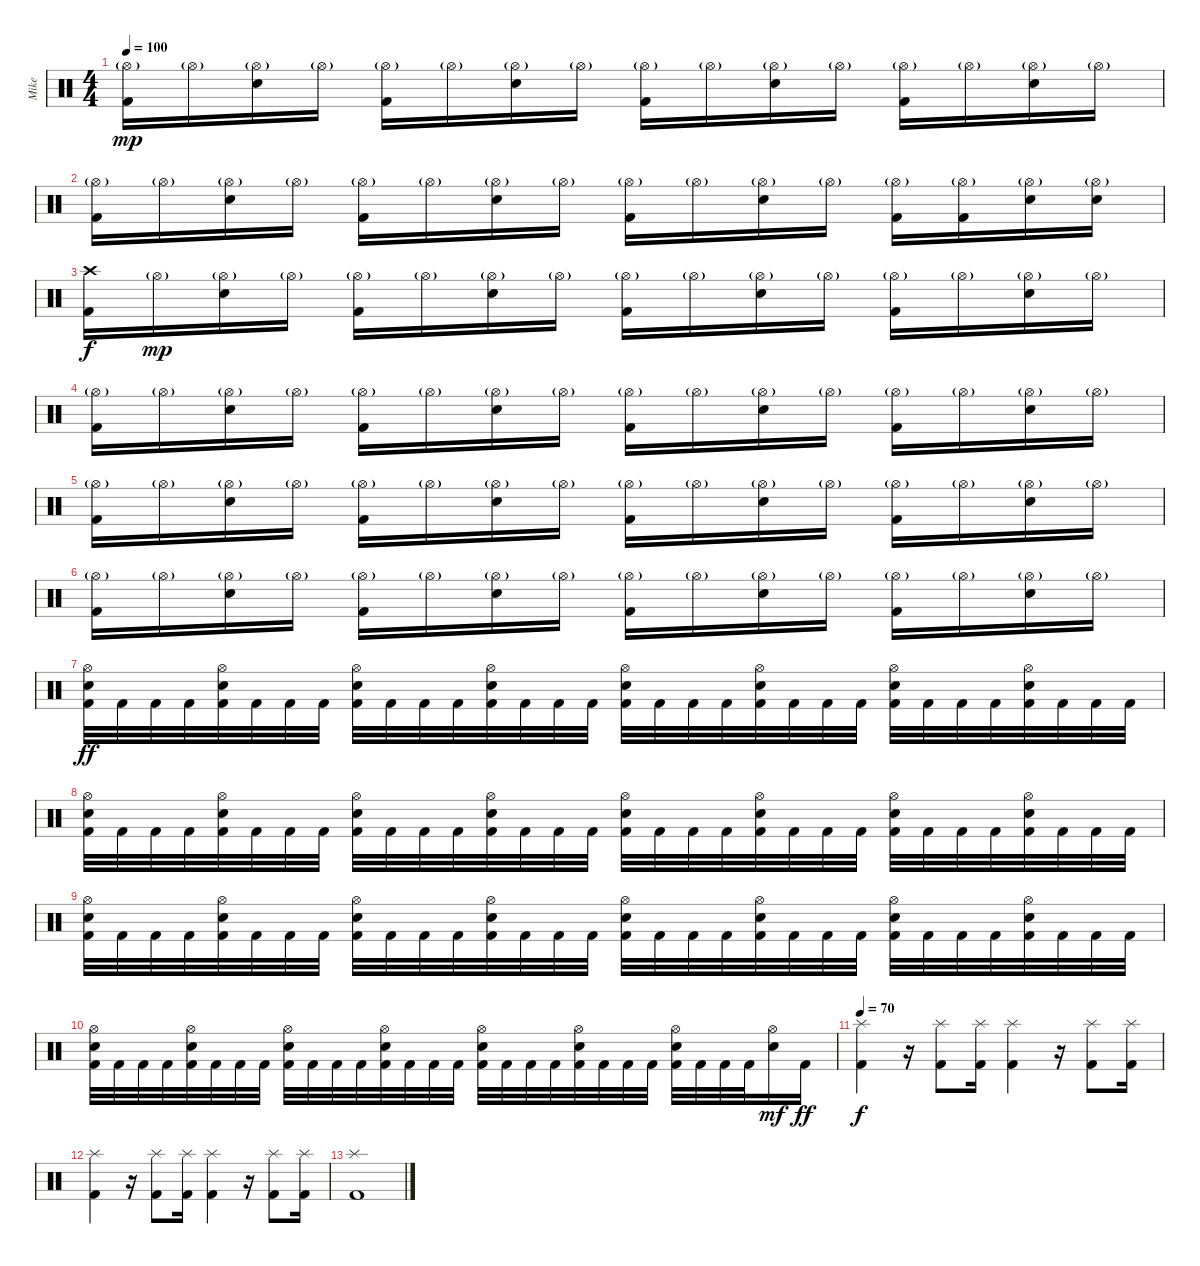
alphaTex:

\track ("Mike" "Mike") {instrument percussion}
\staff {score}
\articulation defaults
\ts (4 4)
\tempo 100
\clef neutral
\ks c
("Hi-Hat (open)"{g} "Kick (hit) 2").16{dy mp} "Hi-Hat (open)"{g}.16 ("Hi-Hat (open)"{g} "Snare (hit) 2").16 "Hi-Hat (open)"{g}.16 ("Hi-Hat (open)"{g} "Kick (hit) 2").16 "Hi-Hat (open)"{g}.16 ("Hi-Hat (open)"{g} "Snare (hit) 2").16 "Hi-Hat (open)"{g}.16 ("Hi-Hat (open)"{g} "Kick (hit) 2").16 "Hi-Hat (open)"{g}.16 ("Hi-Hat (open)"{g} "Snare (hit) 2").16 "Hi-Hat (open)"{g}.16 ("Hi-Hat (open)"{g} "Kick (hit) 2").16 "Hi-Hat (open)"{g}.16 ("Hi-Hat (open)"{g} "Snare (hit) 2").16 "Hi-Hat (open)"{g}.16 |
("Hi-Hat (open)"{g} "Kick (hit) 2").16 "Hi-Hat (open)"{g}.16 ("Hi-Hat (open)"{g} "Snare (hit) 2").16 "Hi-Hat (open)"{g}.16 ("Hi-Hat (open)"{g} "Kick (hit) 2").16 "Hi-Hat (open)"{g}.16 ("Hi-Hat (open)"{g} "Snare (hit) 2").16 "Hi-Hat (open)"{g}.16 ("Hi-Hat (open)"{g} "Kick (hit) 2").16 "Hi-Hat (open)"{g}.16 ("Hi-Hat (open)"{g} "Snare (hit) 2").16 "Hi-Hat (open)"{g}.16 ("Hi-Hat (open)"{g} "Kick (hit) 2").16 ("Hi-Hat (open)"{g} "Kick (hit) 2").16 ("Hi-Hat (open)"{g} "Snare (hit) 2").16 ("Hi-Hat (open)"{g} "Snare (hit) 2").16 |
("Crash high (hit)" "Kick (hit) 2").16{dy f} "Hi-Hat (open)"{g}.16{dy mp} ("Hi-Hat (open)"{g} "Snare (hit) 2").16 "Hi-Hat (open)"{g}.16 ("Hi-Hat (open)"{g} "Kick (hit) 2").16 "Hi-Hat (open)"{g}.16 ("Hi-Hat (open)"{g} "Snare (hit) 2").16 "Hi-Hat (open)"{g}.16 ("Hi-Hat (open)"{g} "Kick (hit) 2").16 "Hi-Hat (open)"{g}.16 ("Hi-Hat (open)"{g} "Snare (hit) 2").16 "Hi-Hat (open)"{g}.16 ("Hi-Hat (open)"{g} "Kick (hit) 2").16 "Hi-Hat (open)"{g}.16 ("Hi-Hat (open)"{g} "Snare (hit) 2").16 "Hi-Hat (open)"{g}.16 |
("Hi-Hat (open)"{g} "Kick (hit) 2").16 "Hi-Hat (open)"{g}.16 ("Hi-Hat (open)"{g} "Snare (hit) 2").16 "Hi-Hat (open)"{g}.16 ("Hi-Hat (open)"{g} "Kick (hit) 2").16 "Hi-Hat (open)"{g}.16 ("Hi-Hat (open)"{g} "Snare (hit) 2").16 "Hi-Hat (open)"{g}.16 ("Hi-Hat (open)"{g} "Kick (hit) 2").16 "Hi-Hat (open)"{g}.16 ("Hi-Hat (open)"{g} "Snare (hit) 2").16 "Hi-Hat (open)"{g}.16 ("Hi-Hat (open)"{g} "Kick (hit) 2").16 "Hi-Hat (open)"{g}.16 ("Hi-Hat (open)"{g} "Snare (hit) 2").16 "Hi-Hat (open)"{g}.16 |
("Hi-Hat (open)"{g} "Kick (hit) 2").16 "Hi-Hat (open)"{g}.16 ("Hi-Hat (open)"{g} "Snare (hit) 2").16 "Hi-Hat (open)"{g}.16 ("Hi-Hat (open)"{g} "Kick (hit) 2").16 "Hi-Hat (open)"{g}.16 ("Hi-Hat (open)"{g} "Snare (hit) 2").16 "Hi-Hat (open)"{g}.16 ("Hi-Hat (open)"{g} "Kick (hit) 2").16 "Hi-Hat (open)"{g}.16 ("Hi-Hat (open)"{g} "Snare (hit) 2").16 "Hi-Hat (open)"{g}.16 ("Hi-Hat (open)"{g} "Kick (hit) 2").16 "Hi-Hat (open)"{g}.16 ("Hi-Hat (open)"{g} "Snare (hit) 2").16 "Hi-Hat (open)"{g}.16 |
("Hi-Hat (open)"{g} "Kick (hit) 2").16 "Hi-Hat (open)"{g}.16 ("Hi-Hat (open)"{g} "Snare (hit) 2").16 "Hi-Hat (open)"{g}.16 ("Hi-Hat (open)"{g} "Kick (hit) 2").16 "Hi-Hat (open)"{g}.16 ("Hi-Hat (open)"{g} "Snare (hit) 2").16 "Hi-Hat (open)"{g}.16 ("Hi-Hat (open)"{g} "Kick (hit) 2").16 "Hi-Hat (open)"{g}.16 ("Hi-Hat (open)"{g} "Snare (hit) 2").16 "Hi-Hat (open)"{g}.16 ("Hi-Hat (open)"{g} "Kick (hit) 2").16 "Hi-Hat (open)"{g}.16 ("Hi-Hat (open)"{g} "Snare (hit) 2").16 "Hi-Hat (open)"{g}.16 |
("Hi-Hat (open)" "Snare (hit) 2" "Kick (hit) 2").32{dy ff} "Kick (hit) 2".32 "Kick (hit) 2".32 "Kick (hit) 2".32 ("Hi-Hat (open)" "Snare (hit) 2" "Kick (hit) 2").32 "Kick (hit) 2".32 "Kick (hit) 2".32 "Kick (hit) 2".32 ("Hi-Hat (open)" "Snare (hit) 2" "Kick (hit) 2").32 "Kick (hit) 2".32 "Kick (hit) 2".32 "Kick (hit) 2".32 ("Hi-Hat (open)" "Snare (hit) 2" "Kick (hit) 2").32 "Kick (hit) 2".32 "Kick (hit) 2".32 "Kick (hit) 2".32 ("Hi-Hat (open)" "Snare (hit) 2" "Kick (hit) 2").32 "Kick (hit) 2".32 "Kick (hit) 2".32 "Kick (hit) 2".32 ("Hi-Hat (open)" "Snare (hit) 2" "Kick (hit) 2").32 "Kick (hit) 2".32 "Kick (hit) 2".32 "Kick (hit) 2".32 ("Hi-Hat (open)" "Snare (hit) 2" "Kick (hit) 2").32 "Kick (hit) 2".32 "Kick (hit) 2".32 "Kick (hit) 2".32 ("Hi-Hat (open)" "Snare (hit) 2" "Kick (hit) 2").32 "Kick (hit) 2".32 "Kick (hit) 2".32 "Kick (hit) 2".32 |
("Hi-Hat (open)" "Snare (hit) 2" "Kick (hit) 2").32 "Kick (hit) 2".32 "Kick (hit) 2".32 "Kick (hit) 2".32 ("Hi-Hat (open)" "Snare (hit) 2" "Kick (hit) 2").32 "Kick (hit) 2".32 "Kick (hit) 2".32 "Kick (hit) 2".32 ("Hi-Hat (open)" "Snare (hit) 2" "Kick (hit) 2").32 "Kick (hit) 2".32 "Kick (hit) 2".32 "Kick (hit) 2".32 ("Hi-Hat (open)" "Snare (hit) 2" "Kick (hit) 2").32 "Kick (hit) 2".32 "Kick (hit) 2".32 "Kick (hit) 2".32 ("Hi-Hat (open)" "Snare (hit) 2" "Kick (hit) 2").32 "Kick (hit) 2".32 "Kick (hit) 2".32 "Kick (hit) 2".32 ("Hi-Hat (open)" "Snare (hit) 2" "Kick (hit) 2").32 "Kick (hit) 2".32 "Kick (hit) 2".32 "Kick (hit) 2".32 ("Hi-Hat (open)" "Snare (hit) 2" "Kick (hit) 2").32 "Kick (hit) 2".32 "Kick (hit) 2".32 "Kick (hit) 2".32 ("Hi-Hat (open)" "Snare (hit) 2" "Kick (hit) 2").32 "Kick (hit) 2".32 "Kick (hit) 2".32 "Kick (hit) 2".32 |
("Hi-Hat (open)" "Snare (hit) 2" "Kick (hit) 2").32 "Kick (hit) 2".32 "Kick (hit) 2".32 "Kick (hit) 2".32 ("Hi-Hat (open)" "Snare (hit) 2" "Kick (hit) 2").32 "Kick (hit) 2".32 "Kick (hit) 2".32 "Kick (hit) 2".32 ("Hi-Hat (open)" "Snare (hit) 2" "Kick (hit) 2").32 "Kick (hit) 2".32 "Kick (hit) 2".32 "Kick (hit) 2".32 ("Hi-Hat (open)" "Snare (hit) 2" "Kick (hit) 2").32 "Kick (hit) 2".32 "Kick (hit) 2".32 "Kick (hit) 2".32 ("Hi-Hat (open)" "Snare (hit) 2" "Kick (hit) 2").32 "Kick (hit) 2".32 "Kick (hit) 2".32 "Kick (hit) 2".32 ("Hi-Hat (open)" "Snare (hit) 2" "Kick (hit) 2").32 "Kick (hit) 2".32 "Kick (hit) 2".32 "Kick (hit) 2".32 ("Hi-Hat (open)" "Snare (hit) 2" "Kick (hit) 2").32 "Kick (hit) 2".32 "Kick (hit) 2".32 "Kick (hit) 2".32 ("Hi-Hat (open)" "Snare (hit) 2" "Kick (hit) 2").32 "Kick (hit) 2".32 "Kick (hit) 2".32 "Kick (hit) 2".32 |
("Hi-Hat (open)" "Snare (hit) 2" "Kick (hit) 2").32 "Kick (hit) 2".32 "Kick (hit) 2".32 "Kick (hit) 2".32 ("Hi-Hat (open)" "Snare (hit) 2" "Kick (hit) 2").32 "Kick (hit) 2".32 "Kick (hit) 2".32 "Kick (hit) 2".32 ("Hi-Hat (open)" "Snare (hit) 2" "Kick (hit) 2").32 "Kick (hit) 2".32 "Kick (hit) 2".32 "Kick (hit) 2".32 ("Hi-Hat (open)" "Snare (hit) 2" "Kick (hit) 2").32 "Kick (hit) 2".32 "Kick (hit) 2".32 "Kick (hit) 2".32 ("Hi-Hat (open)" "Snare (hit) 2" "Kick (hit) 2").32 "Kick (hit) 2".32 "Kick (hit) 2".32 "Kick (hit) 2".32 ("Hi-Hat (open)" "Snare (hit) 2" "Kick (hit) 2").32 "Kick (hit) 2".32 "Kick (hit) 2".32 "Kick (hit) 2".32 ("Hi-Hat (open)" "Snare (hit) 2" "Kick (hit) 2").32 "Kick (hit) 2".32 "Kick (hit) 2".32 "Kick (hit) 2".32 ("Hi-Hat (open)" "Snare (hit) 2").16{dy mf} "Kick (hit) 2".16{dy ff} |
\tempo 70
("Splash (hit)" "Kick (hit) 2").4{dy f} r.16 ("Splash (hit)" "Kick (hit) 2").8 ("Splash (hit)" "Kick (hit) 2").16 ("Splash (hit)" "Kick (hit) 2").4 r.16 ("Splash (hit)" "Kick (hit) 2").8 ("Splash (hit)" "Kick (hit) 2").16 |
("Splash (hit)" "Kick (hit) 2").4 r.16 ("Splash (hit)" "Kick (hit) 2").8 ("Splash (hit)" "Kick (hit) 2").16 ("Splash (hit)" "Kick (hit) 2").4 r.16 ("Splash (hit)" "Kick (hit) 2").8 ("Splash (hit)" "Kick (hit) 2").16 |
("Splash (hit)" "Kick (hit) 2").1
